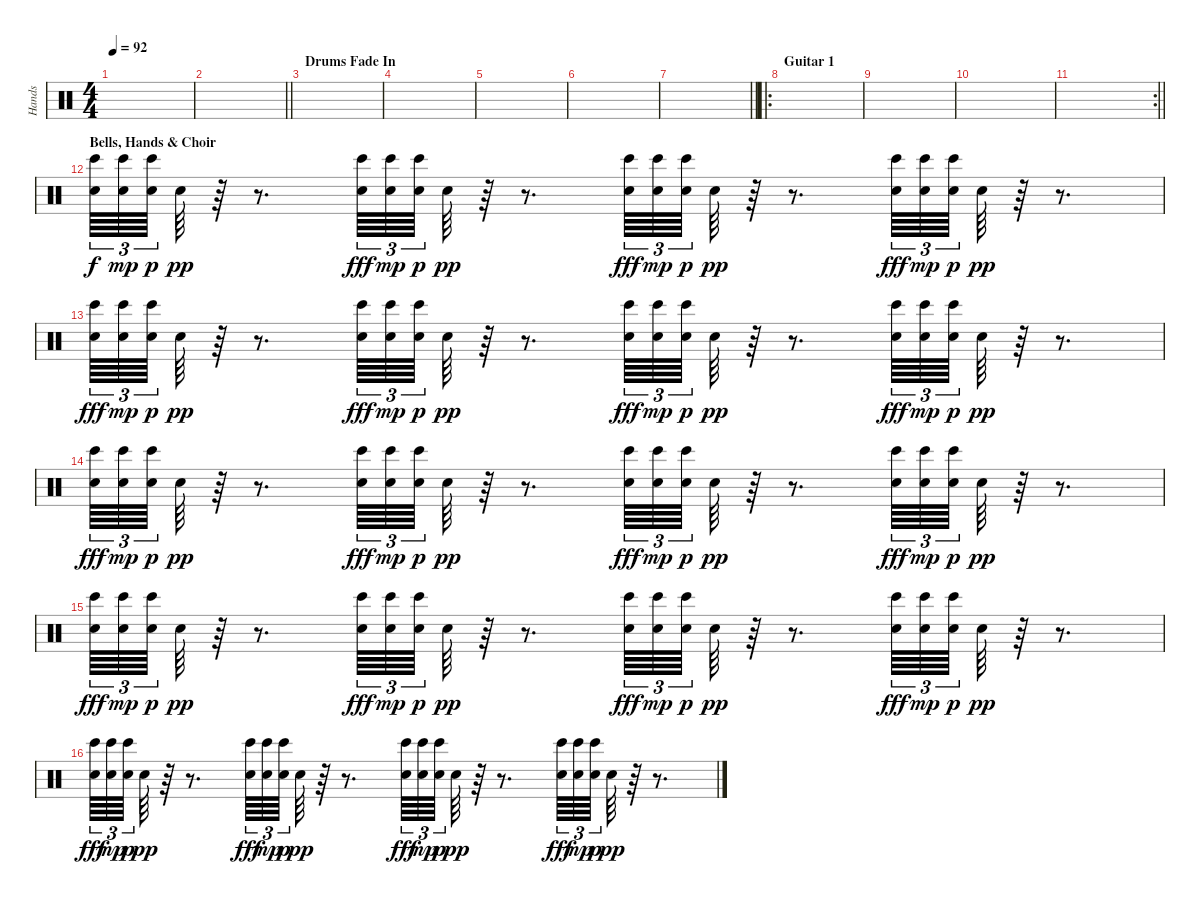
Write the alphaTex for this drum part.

\track ("Hands" "Hands") {instrument percussion}
\staff {score}
\articulation defaults
\ts (4 4)
\tempo 92
\clef neutral
\ks c
|
\barLineRight lightlight
|
\section ("" "Drums Fade In")
|
|
|
|
\barLineRight lightlight
|
\ro
\section ("" "Guitar 1")
|
|
|
\rc 2
\barLineRight lightlight
|
\section ("" "Bells, Hands & Choir")
("Bongo High (hit)" "Hand Clap (hit)").64{tu (3 2)} ("Bongo High (hit)" "Hand Clap (hit)").64{tu (3 2) dy mp} ("Bongo High (hit)" "Hand Clap (hit)").64{tu (3 2) dy p} "Hand Clap (hit)".64{dy pp} r.64 r.8{d} ("Bongo High (hit)" "Hand Clap (hit)").64{tu (3 2) dy fff} ("Bongo High (hit)" "Hand Clap (hit)").64{tu (3 2) dy mp} ("Bongo High (hit)" "Hand Clap (hit)").64{tu (3 2) dy p} "Hand Clap (hit)".64{dy pp} r.64 r.8{d} ("Bongo High (hit)" "Hand Clap (hit)").64{tu (3 2) dy fff} ("Bongo High (hit)" "Hand Clap (hit)").64{tu (3 2) dy mp} ("Bongo High (hit)" "Hand Clap (hit)").64{tu (3 2) dy p} "Hand Clap (hit)".64{dy pp} r.64 r.8{d} ("Bongo High (hit)" "Hand Clap (hit)").64{tu (3 2) dy fff} ("Bongo High (hit)" "Hand Clap (hit)").64{tu (3 2) dy mp} ("Bongo High (hit)" "Hand Clap (hit)").64{tu (3 2) dy p} "Hand Clap (hit)".64{dy pp} r.64 r.8{d} |
("Bongo High (hit)" "Hand Clap (hit)").64{tu (3 2) dy fff} ("Bongo High (hit)" "Hand Clap (hit)").64{tu (3 2) dy mp} ("Bongo High (hit)" "Hand Clap (hit)").64{tu (3 2) dy p} "Hand Clap (hit)".64{dy pp} r.64 r.8{d} ("Bongo High (hit)" "Hand Clap (hit)").64{tu (3 2) dy fff} ("Bongo High (hit)" "Hand Clap (hit)").64{tu (3 2) dy mp} ("Bongo High (hit)" "Hand Clap (hit)").64{tu (3 2) dy p} "Hand Clap (hit)".64{dy pp} r.64 r.8{d} ("Bongo High (hit)" "Hand Clap (hit)").64{tu (3 2) dy fff} ("Bongo High (hit)" "Hand Clap (hit)").64{tu (3 2) dy mp} ("Bongo High (hit)" "Hand Clap (hit)").64{tu (3 2) dy p} "Hand Clap (hit)".64{dy pp} r.64 r.8{d} ("Bongo High (hit)" "Hand Clap (hit)").64{tu (3 2) dy fff} ("Bongo High (hit)" "Hand Clap (hit)").64{tu (3 2) dy mp} ("Bongo High (hit)" "Hand Clap (hit)").64{tu (3 2) dy p} "Hand Clap (hit)".64{dy pp} r.64 r.8{d} |
("Bongo High (hit)" "Hand Clap (hit)").64{tu (3 2) dy fff} ("Bongo High (hit)" "Hand Clap (hit)").64{tu (3 2) dy mp} ("Bongo High (hit)" "Hand Clap (hit)").64{tu (3 2) dy p} "Hand Clap (hit)".64{dy pp} r.64 r.8{d} ("Bongo High (hit)" "Hand Clap (hit)").64{tu (3 2) dy fff} ("Bongo High (hit)" "Hand Clap (hit)").64{tu (3 2) dy mp} ("Bongo High (hit)" "Hand Clap (hit)").64{tu (3 2) dy p} "Hand Clap (hit)".64{dy pp} r.64 r.8{d} ("Bongo High (hit)" "Hand Clap (hit)").64{tu (3 2) dy fff} ("Bongo High (hit)" "Hand Clap (hit)").64{tu (3 2) dy mp} ("Bongo High (hit)" "Hand Clap (hit)").64{tu (3 2) dy p} "Hand Clap (hit)".64{dy pp} r.64 r.8{d} ("Bongo High (hit)" "Hand Clap (hit)").64{tu (3 2) dy fff} ("Bongo High (hit)" "Hand Clap (hit)").64{tu (3 2) dy mp} ("Bongo High (hit)" "Hand Clap (hit)").64{tu (3 2) dy p} "Hand Clap (hit)".64{dy pp} r.64 r.8{d} |
("Bongo High (hit)" "Hand Clap (hit)").64{tu (3 2) dy fff} ("Bongo High (hit)" "Hand Clap (hit)").64{tu (3 2) dy mp} ("Bongo High (hit)" "Hand Clap (hit)").64{tu (3 2) dy p} "Hand Clap (hit)".64{dy pp} r.64 r.8{d} ("Bongo High (hit)" "Hand Clap (hit)").64{tu (3 2) dy fff} ("Bongo High (hit)" "Hand Clap (hit)").64{tu (3 2) dy mp} ("Bongo High (hit)" "Hand Clap (hit)").64{tu (3 2) dy p} "Hand Clap (hit)".64{dy pp} r.64 r.8{d} ("Bongo High (hit)" "Hand Clap (hit)").64{tu (3 2) dy fff} ("Bongo High (hit)" "Hand Clap (hit)").64{tu (3 2) dy mp} ("Bongo High (hit)" "Hand Clap (hit)").64{tu (3 2) dy p} "Hand Clap (hit)".64{dy pp} r.64 r.8{d} ("Bongo High (hit)" "Hand Clap (hit)").64{tu (3 2) dy fff} ("Bongo High (hit)" "Hand Clap (hit)").64{tu (3 2) dy mp} ("Bongo High (hit)" "Hand Clap (hit)").64{tu (3 2) dy p} "Hand Clap (hit)".64{dy pp} r.64 r.8{d} |
("Bongo High (hit)" "Hand Clap (hit)").64{tu (3 2) dy fff} ("Bongo High (hit)" "Hand Clap (hit)").64{tu (3 2) dy mp} ("Bongo High (hit)" "Hand Clap (hit)").64{tu (3 2) dy p} "Hand Clap (hit)".64{dy pp} r.64 r.8{d} ("Bongo High (hit)" "Hand Clap (hit)").64{tu (3 2) dy fff} ("Bongo High (hit)" "Hand Clap (hit)").64{tu (3 2) dy mp} ("Bongo High (hit)" "Hand Clap (hit)").64{tu (3 2) dy p} "Hand Clap (hit)".64{dy pp} r.64 r.8{d} ("Bongo High (hit)" "Hand Clap (hit)").64{tu (3 2) dy fff} ("Bongo High (hit)" "Hand Clap (hit)").64{tu (3 2) dy mp} ("Bongo High (hit)" "Hand Clap (hit)").64{tu (3 2) dy p} "Hand Clap (hit)".64{dy pp} r.64 r.8{d} ("Bongo High (hit)" "Hand Clap (hit)").64{tu (3 2) dy fff} ("Bongo High (hit)" "Hand Clap (hit)").64{tu (3 2) dy mp} ("Bongo High (hit)" "Hand Clap (hit)").64{tu (3 2) dy p} "Hand Clap (hit)".64{dy pp} r.64 r.8{d}
